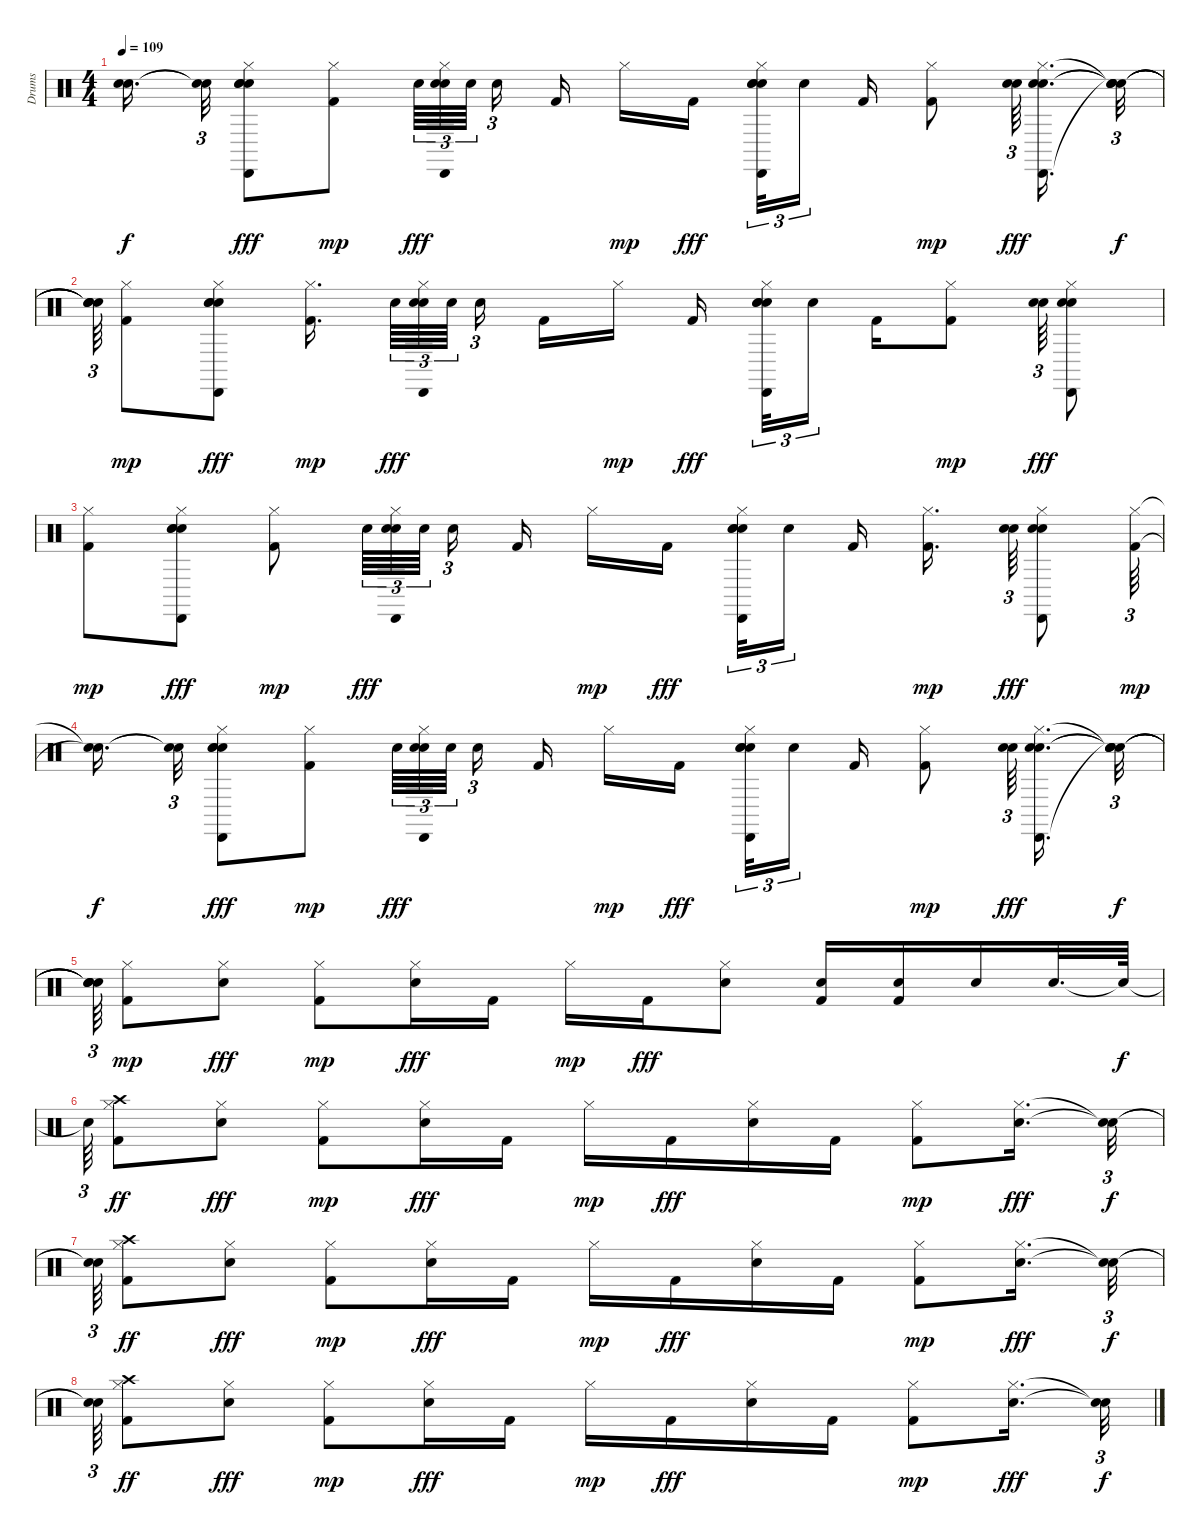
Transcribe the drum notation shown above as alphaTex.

\track ("Drums" "Drums") {instrument percussion}
\staff {score}
\articulation defaults
\ts (4 4)
\tempo 109
\clef neutral
\ks c
("Snare (hit)"{t} "Snare (hit)"{t}).16{d dy f beam splitsecondary} ("Snare (hit)"{t} "Snare (hit)"{t}).32{tu (3 2)} ("Cabasa (hit)" "Snare (hit) 2" "Hi-Hat (closed)" "Hand Clap (hit)" "Hand Clap (hit)").8{dy fff} ("Kick (hit) 2" "Hi-Hat (closed)").8{dy mp} "Hand Clap (hit)".64{tu (3 2) dy fff} ("Cabasa (hit)" "Snare (hit) 2" "Hi-Hat (closed)" "Hand Clap (hit)").64{tu (3 2)} "Hand Clap (hit)".64{tu (3 2) beam splitsecondary} "Hand Clap (hit)".16{tu (3 2)} "Kick (hit) 2".16 "Hi-Hat (closed)".16{dy mp} "Kick (hit) 2".16{dy fff beam splitsecondary} ("Cabasa (hit)" "Snare (hit) 2" "Hi-Hat (closed)" "Hand Clap (hit)" "Hand Clap (hit)").32{tu (3 2)} "Hand Clap (hit)".16{tu (3 2) beam splitsecondary} "Kick (hit) 2".16 ("Kick (hit) 2" "Hi-Hat (closed)").8{dy mp} ("Hand Clap (hit)" "Hand Clap (hit)").64{tu (3 2) dy fff beam splitsecondary} ("Cabasa (hit)" "Snare (hit) 2" "Hi-Hat (closed)" "Hand Clap (hit)").16{d} ("Snare (hit)"{t} "Snare (hit)"{t} "Snare (hit)"{t} "Snare (hit)"{t}).32{tu (3 2) dy f} |
("Snare (hit)"{t} "Snare (hit)"{t} "Snare (hit)"{t} "Snare (hit)"{t}).64{tu (3 2)} ("Kick (hit) 2" "Hi-Hat (closed)").8{dy mp} ("Cabasa (hit)" "Snare (hit) 2" "Hi-Hat (closed)" "Hand Clap (hit)" "Hand Clap (hit)").8{dy fff} ("Kick (hit) 2" "Hi-Hat (closed)").16{d dy mp beam splitsecondary} "Hand Clap (hit)".64{tu (3 2) dy fff} ("Cabasa (hit)" "Snare (hit) 2" "Hi-Hat (closed)" "Hand Clap (hit)").64{tu (3 2)} "Hand Clap (hit)".64{tu (3 2) beam splitsecondary} "Hand Clap (hit)".16{tu (3 2) beam splitsecondary} "Kick (hit) 2".16 "Hi-Hat (closed)".16{dy mp} "Kick (hit) 2".16{dy fff beam splitsecondary} ("Cabasa (hit)" "Snare (hit) 2" "Hi-Hat (closed)" "Hand Clap (hit)" "Hand Clap (hit)").32{tu (3 2)} "Hand Clap (hit)".16{tu (3 2) beam splitsecondary} "Kick (hit) 2".16 ("Kick (hit) 2" "Hi-Hat (closed)").8{dy mp} ("Hand Clap (hit)" "Hand Clap (hit)").64{tu (3 2) dy fff} ("Cabasa (hit)" "Snare (hit) 2" "Hi-Hat (closed)" "Hand Clap (hit)").8 |
("Kick (hit) 2" "Hi-Hat (closed)").8{dy mp} ("Cabasa (hit)" "Snare (hit) 2" "Hi-Hat (closed)" "Hand Clap (hit)" "Hand Clap (hit)").8{dy fff} ("Kick (hit) 2" "Hi-Hat (closed)").8{dy mp} "Hand Clap (hit)".64{tu (3 2) dy fff} ("Cabasa (hit)" "Snare (hit) 2" "Hi-Hat (closed)" "Hand Clap (hit)").64{tu (3 2)} "Hand Clap (hit)".64{tu (3 2) beam splitsecondary} "Hand Clap (hit)".16{tu (3 2)} "Kick (hit) 2".16 "Hi-Hat (closed)".16{dy mp} "Kick (hit) 2".16{dy fff beam splitsecondary} ("Cabasa (hit)" "Snare (hit) 2" "Hi-Hat (closed)" "Hand Clap (hit)" "Hand Clap (hit)").32{tu (3 2)} "Hand Clap (hit)".16{tu (3 2) beam splitsecondary} "Kick (hit) 2".16 ("Kick (hit) 2" "Hi-Hat (closed)").16{d dy mp beam splitsecondary} ("Hand Clap (hit)" "Hand Clap (hit)").64{tu (3 2) dy fff} ("Cabasa (hit)" "Snare (hit) 2" "Hi-Hat (closed)" "Hand Clap (hit)").8 ("Kick (hit) 2" "Hi-Hat (closed)").64{tu (3 2) dy mp} |
("Snare (hit)"{t} "Snare (hit)"{t}).16{d dy f beam splitsecondary} ("Snare (hit)"{t} "Snare (hit)"{t}).32{tu (3 2)} ("Cabasa (hit)" "Snare (hit) 2" "Hi-Hat (closed)" "Hand Clap (hit)" "Hand Clap (hit)").8{dy fff} ("Kick (hit) 2" "Hi-Hat (closed)").8{dy mp} "Hand Clap (hit)".64{tu (3 2) dy fff} ("Cabasa (hit)" "Snare (hit) 2" "Hi-Hat (closed)" "Hand Clap (hit)").64{tu (3 2)} "Hand Clap (hit)".64{tu (3 2) beam splitsecondary} "Hand Clap (hit)".16{tu (3 2)} "Kick (hit) 2".16 "Hi-Hat (closed)".16{dy mp} "Kick (hit) 2".16{dy fff beam splitsecondary} ("Cabasa (hit)" "Snare (hit) 2" "Hi-Hat (closed)" "Hand Clap (hit)" "Hand Clap (hit)").32{tu (3 2)} "Hand Clap (hit)".16{tu (3 2) beam splitsecondary} "Kick (hit) 2".16 ("Kick (hit) 2" "Hi-Hat (closed)").8{dy mp} ("Hand Clap (hit)" "Hand Clap (hit)").64{tu (3 2) dy fff beam splitsecondary} ("Cabasa (hit)" "Snare (hit) 2" "Hi-Hat (closed)" "Hand Clap (hit)").16{d} ("Snare (hit)"{t} "Snare (hit)"{t} "Snare (hit)"{t} "Snare (hit)"{t}).32{tu (3 2) dy f} |
("Snare (hit)"{t} "Snare (hit)"{t} "Snare (hit)"{t} "Snare (hit)"{t}).64{tu (3 2)} ("Kick (hit) 2" "Hi-Hat (closed)").8{dy mp} ("Snare (hit) 2" "Hi-Hat (closed)").8{dy fff} ("Kick (hit) 2" "Hi-Hat (closed)").8{dy mp} ("Snare (hit) 2" "Hi-Hat (closed)").16{dy fff} "Kick (hit) 2".16 "Hi-Hat (closed)".16{dy mp} "Kick (hit) 2".16{dy fff} ("Snare (hit) 2" "Hi-Hat (closed)").8 ("Snare (hit) 2" "Kick (hit) 2").16 ("Snare (hit) 2" "Kick (hit) 2").16 "Snare (hit) 2".16 "Snare (hit) 2".32{d} "Snare (hit)"{t}.64{dy f} |
"Snare (hit)"{t}.64{tu (3 2)} ("Kick (hit) 2" "Hi-Hat (closed)" "Crash high (hit)").8{dy ff} ("Snare (hit) 2" "Hi-Hat (closed)").8{dy fff} ("Kick (hit) 2" "Hi-Hat (closed)").8{dy mp} ("Snare (hit) 2" "Hi-Hat (closed)").16{dy fff} "Kick (hit) 2".16 "Hi-Hat (closed)".16{dy mp} "Kick (hit) 2".16{dy fff} ("Snare (hit) 2" "Hi-Hat (closed)").16 "Kick (hit) 2".16 ("Kick (hit) 2" "Hi-Hat (closed)").8{dy mp} ("Snare (hit) 2" "Hi-Hat (closed)").16{d dy fff} ("Snare (hit)"{t} "Snare (hit)"{t}).32{tu (3 2) dy f} |
("Snare (hit)"{t} "Snare (hit)"{t}).64{tu (3 2)} ("Kick (hit) 2" "Hi-Hat (closed)" "Crash high (hit)").8{dy ff} ("Snare (hit) 2" "Hi-Hat (closed)").8{dy fff} ("Kick (hit) 2" "Hi-Hat (closed)").8{dy mp} ("Snare (hit) 2" "Hi-Hat (closed)").16{dy fff} "Kick (hit) 2".16 "Hi-Hat (closed)".16{dy mp} "Kick (hit) 2".16{dy fff} ("Snare (hit) 2" "Hi-Hat (closed)").16 "Kick (hit) 2".16 ("Kick (hit) 2" "Hi-Hat (closed)").8{dy mp} ("Snare (hit) 2" "Hi-Hat (closed)").16{d dy fff} ("Snare (hit)"{t} "Snare (hit)"{t}).32{tu (3 2) dy f} |
("Snare (hit)"{t} "Snare (hit)"{t}).64{tu (3 2)} ("Kick (hit) 2" "Hi-Hat (closed)" "Crash high (hit)").8{dy ff} ("Snare (hit) 2" "Hi-Hat (closed)").8{dy fff} ("Kick (hit) 2" "Hi-Hat (closed)").8{dy mp} ("Snare (hit) 2" "Hi-Hat (closed)").16{dy fff} "Kick (hit) 2".16 "Hi-Hat (closed)".16{dy mp} "Kick (hit) 2".16{dy fff} ("Snare (hit) 2" "Hi-Hat (closed)").16 "Kick (hit) 2".16 ("Kick (hit) 2" "Hi-Hat (closed)").8{dy mp} ("Snare (hit) 2" "Hi-Hat (closed)").16{d dy fff} ("Snare (hit)"{t} "Snare (hit)"{t}).32{tu (3 2) dy f}
